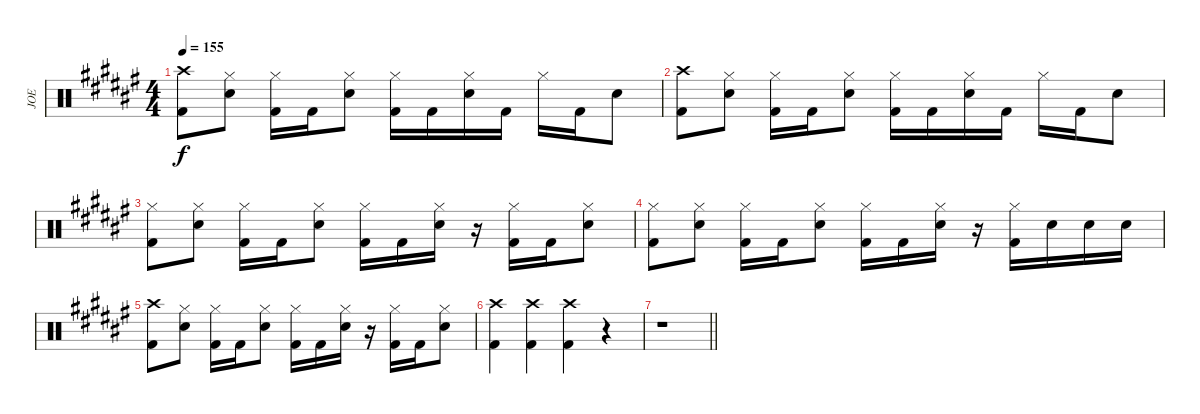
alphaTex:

\track ("JOE" "JOE") {instrument percussion}
\staff {score}
\articulation defaults
\ts (4 4)
\tempo 155
\clef neutral
\ks f#
("Crash high (hit)" "Kick (hit) 2").8{dy f} ("Hi-Hat (closed)" "Snare (hit) 2").8 ("Hi-Hat (closed)" "Kick (hit) 2").16 "Kick (hit) 2".16 ("Hi-Hat (closed)" "Snare (hit) 2").8 ("Hi-Hat (closed)" "Kick (hit) 2").16 "Kick (hit) 2".16 ("Hi-Hat (closed)" "Snare (hit) 2").16 "Kick (hit) 2".16 "Hi-Hat (closed)".16 "Kick (hit) 2".16 "Snare (hit) 2".8 |
("Crash high (hit)" "Kick (hit) 2").8 ("Hi-Hat (closed)" "Snare (hit) 2").8 ("Hi-Hat (closed)" "Kick (hit) 2").16 "Kick (hit) 2".16 ("Hi-Hat (closed)" "Snare (hit) 2").8 ("Hi-Hat (closed)" "Kick (hit) 2").16 "Kick (hit) 2".16 ("Hi-Hat (closed)" "Snare (hit) 2").16 "Kick (hit) 2".16 "Hi-Hat (closed)".16 "Kick (hit) 2".16 "Snare (hit) 2".8 |
("Hi-Hat (closed)" "Kick (hit) 2").8 ("Hi-Hat (closed)" "Snare (hit) 2").8 ("Hi-Hat (closed)" "Kick (hit) 2").16 "Kick (hit) 2".16 ("Hi-Hat (closed)" "Snare (hit) 2").8 ("Hi-Hat (closed)" "Kick (hit) 2").16 "Kick (hit) 2".16 ("Hi-Hat (closed)" "Snare (hit) 2").16 r.16 ("Hi-Hat (closed)" "Kick (hit) 2").16 "Kick (hit) 2".16 ("Hi-Hat (closed)" "Snare (hit) 2").8 |
("Hi-Hat (closed)" "Kick (hit) 2").8 ("Hi-Hat (closed)" "Snare (hit) 2").8 ("Hi-Hat (closed)" "Kick (hit) 2").16 "Kick (hit) 2".16 ("Hi-Hat (closed)" "Snare (hit) 2").8 ("Hi-Hat (closed)" "Kick (hit) 2").16 "Kick (hit) 2".16 ("Hi-Hat (closed)" "Snare (hit) 2").16 r.16 ("Hi-Hat (closed)" "Kick (hit) 2").16 "Snare (hit) 2".16 "Snare (hit) 2".16 "Snare (hit) 2".16 |
("Crash high (hit)" "Kick (hit) 2").8 ("Hi-Hat (closed)" "Snare (hit) 2").8 ("Hi-Hat (closed)" "Kick (hit) 2").16 "Kick (hit) 2".16 ("Hi-Hat (closed)" "Snare (hit) 2").8 ("Hi-Hat (closed)" "Kick (hit) 2").16 "Kick (hit) 2".16 ("Hi-Hat (closed)" "Snare (hit) 2").16 r.16 ("Hi-Hat (closed)" "Kick (hit) 2").16 "Kick (hit) 2".16 ("Hi-Hat (closed)" "Snare (hit) 2").8 |
("Crash high (hit)" "Kick (hit) 2").4 ("Crash high (hit)" "Kick (hit) 2").4 ("Crash high (hit)" "Kick (hit) 2").4 r.4 |
\barLineRight lightlight
r.1
